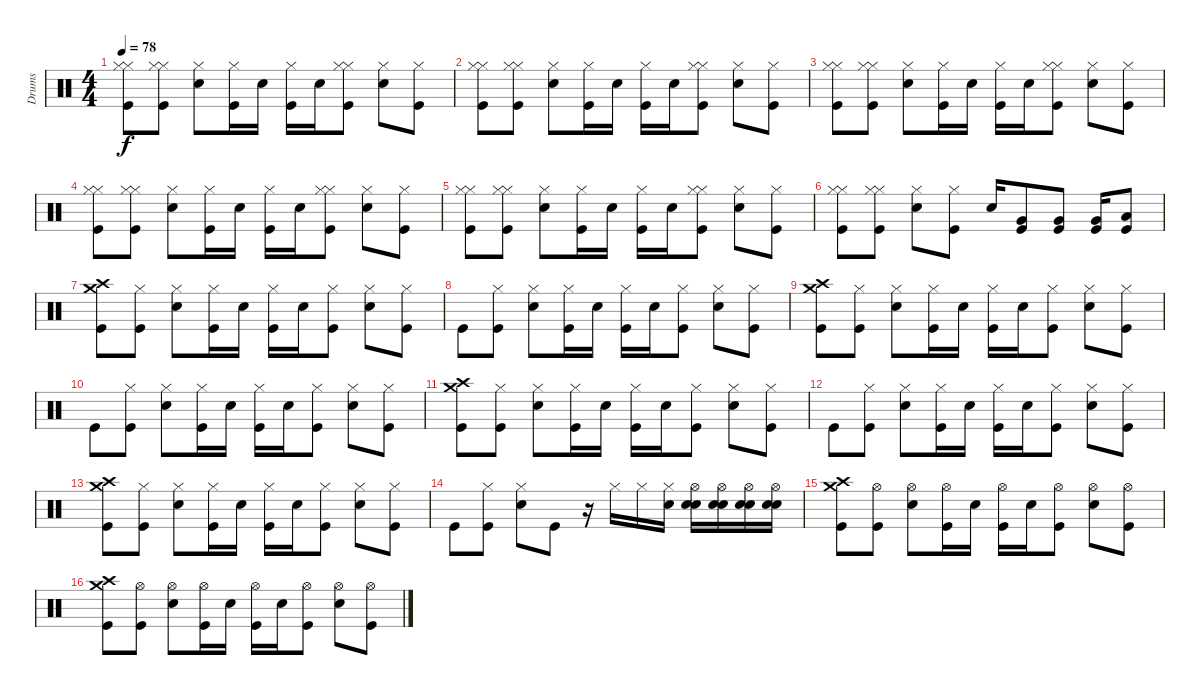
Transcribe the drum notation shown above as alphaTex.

\track ("Drums" "Drums") {instrument percussion}
\staff {score}
\articulation defaults
\ts (4 4)
\tempo 78
\clef neutral
\ks c
("Hi-Hat (closed)" "Hi-Hat (closed)" "Kick (hit)").8{dy f} ("Hi-Hat (closed)" "Hi-Hat (closed)" "Kick (hit)").8 ("Snare (hit) 2" "Hi-Hat (closed)").8 ("Hi-Hat (closed)" "Kick (hit)").16 "Snare (hit) 2".16 ("Hi-Hat (closed)" "Kick (hit)").16 "Snare (hit) 2".16 ("Hi-Hat (closed)" "Hi-Hat (closed)" "Kick (hit)").8 ("Snare (hit) 2" "Hi-Hat (closed)").8 ("Hi-Hat (closed)" "Kick (hit)").8 |
("Hi-Hat (closed)" "Hi-Hat (closed)" "Kick (hit)").8 ("Hi-Hat (closed)" "Hi-Hat (closed)" "Kick (hit)").8 ("Snare (hit) 2" "Hi-Hat (closed)").8 ("Hi-Hat (closed)" "Kick (hit)").16 "Snare (hit) 2".16 ("Hi-Hat (closed)" "Kick (hit)").16 "Snare (hit) 2".16 ("Hi-Hat (closed)" "Hi-Hat (closed)" "Kick (hit)").8 ("Snare (hit) 2" "Hi-Hat (closed)").8 ("Hi-Hat (closed)" "Kick (hit)").8 |
("Hi-Hat (closed)" "Hi-Hat (closed)" "Kick (hit)").8 ("Hi-Hat (closed)" "Hi-Hat (closed)" "Kick (hit)").8 ("Snare (hit) 2" "Hi-Hat (closed)").8 ("Hi-Hat (closed)" "Kick (hit)").16 "Snare (hit) 2".16 ("Hi-Hat (closed)" "Kick (hit)").16 "Snare (hit) 2".16 ("Hi-Hat (closed)" "Hi-Hat (closed)" "Kick (hit)").8 ("Snare (hit) 2" "Hi-Hat (closed)").8 ("Hi-Hat (closed)" "Kick (hit)").8 |
("Hi-Hat (closed)" "Hi-Hat (closed)" "Kick (hit)").8 ("Hi-Hat (closed)" "Hi-Hat (closed)" "Kick (hit)").8 ("Snare (hit) 2" "Hi-Hat (closed)").8 ("Hi-Hat (closed)" "Kick (hit)").16 "Snare (hit) 2".16 ("Hi-Hat (closed)" "Kick (hit)").16 "Snare (hit) 2".16 ("Hi-Hat (closed)" "Hi-Hat (closed)" "Kick (hit)").8 ("Snare (hit) 2" "Hi-Hat (closed)").8 ("Hi-Hat (closed)" "Kick (hit)").8 |
("Hi-Hat (closed)" "Hi-Hat (closed)" "Kick (hit)").8 ("Hi-Hat (closed)" "Hi-Hat (closed)" "Kick (hit)").8 ("Snare (hit) 2" "Hi-Hat (closed)").8 ("Hi-Hat (closed)" "Kick (hit)").16 "Snare (hit) 2".16 ("Hi-Hat (closed)" "Kick (hit)").16 "Snare (hit) 2".16 ("Hi-Hat (closed)" "Hi-Hat (closed)" "Kick (hit)").8 ("Snare (hit) 2" "Hi-Hat (closed)").8 ("Hi-Hat (closed)" "Kick (hit)").8 |
("Hi-Hat (closed)" "Hi-Hat (closed)" "Kick (hit)").8 ("Hi-Hat (closed)" "Hi-Hat (closed)" "Kick (hit)").8 ("Snare (hit) 2" "Hi-Hat (closed)").8 ("Hi-Hat (closed)" "Kick (hit)").8 "Electric Snare (hit)".16 ("Very Low Tom (hit)" "Kick (hit)").8 ("Very Low Tom (hit)" "Kick (hit)").8 ("Very Low Tom (hit)" "Kick (hit)").16 ("Low Floor Tom (hit)" "Kick (hit)").8 |
("Crash high (hit)" "Crash medium (hit)" "Kick (hit)").8 ("Hi-Hat (closed)" "Kick (hit)").8 ("Electric Snare (hit)" "Hi-Hat (closed)").8 ("Hi-Hat (closed)" "Kick (hit)").16 "Electric Snare (hit)".16 ("Hi-Hat (closed)" "Kick (hit)").16 "Electric Snare (hit)".16 ("Hi-Hat (closed)" "Kick (hit)").8 ("Electric Snare (hit)" "Hi-Hat (closed)").8 ("Hi-Hat (closed)" "Kick (hit)").8 |
"Kick (hit)".8 ("Hi-Hat (closed)" "Kick (hit)").8 ("Electric Snare (hit)" "Hi-Hat (closed)").8 ("Hi-Hat (closed)" "Kick (hit)").16 "Electric Snare (hit)".16 ("Hi-Hat (closed)" "Kick (hit)").16 "Electric Snare (hit)".16 ("Hi-Hat (closed)" "Kick (hit)").8 ("Electric Snare (hit)" "Hi-Hat (closed)").8 ("Hi-Hat (closed)" "Kick (hit)").8 |
("Crash high (hit)" "Crash medium (hit)" "Kick (hit)").8 ("Hi-Hat (closed)" "Kick (hit)").8 ("Electric Snare (hit)" "Hi-Hat (closed)").8 ("Hi-Hat (closed)" "Kick (hit)").16 "Electric Snare (hit)".16 ("Hi-Hat (closed)" "Kick (hit)").16 "Electric Snare (hit)".16 ("Hi-Hat (closed)" "Kick (hit)").8 ("Electric Snare (hit)" "Hi-Hat (closed)").8 ("Hi-Hat (closed)" "Kick (hit)").8 |
"Kick (hit)".8 ("Hi-Hat (closed)" "Kick (hit)").8 ("Electric Snare (hit)" "Hi-Hat (closed)").8 ("Hi-Hat (closed)" "Kick (hit)").16 "Electric Snare (hit)".16 ("Hi-Hat (closed)" "Kick (hit)").16 "Electric Snare (hit)".16 ("Hi-Hat (closed)" "Kick (hit)").8 ("Electric Snare (hit)" "Hi-Hat (closed)").8 ("Hi-Hat (closed)" "Kick (hit)").8 |
("Crash high (hit)" "Crash medium (hit)" "Kick (hit)").8 ("Hi-Hat (closed)" "Kick (hit)").8 ("Electric Snare (hit)" "Hi-Hat (closed)").8 ("Hi-Hat (closed)" "Kick (hit)").16 "Electric Snare (hit)".16 ("Hi-Hat (closed)" "Kick (hit)").16 "Electric Snare (hit)".16 ("Hi-Hat (closed)" "Kick (hit)").8 ("Electric Snare (hit)" "Hi-Hat (closed)").8 ("Hi-Hat (closed)" "Kick (hit)").8 |
"Kick (hit)".8 ("Hi-Hat (closed)" "Kick (hit)").8 ("Electric Snare (hit)" "Hi-Hat (closed)").8 ("Hi-Hat (closed)" "Kick (hit)").16 "Electric Snare (hit)".16 ("Hi-Hat (closed)" "Kick (hit)").16 "Electric Snare (hit)".16 ("Hi-Hat (closed)" "Kick (hit)").8 ("Electric Snare (hit)" "Hi-Hat (closed)").8 ("Hi-Hat (closed)" "Kick (hit)").8 |
("Crash high (hit)" "Crash medium (hit)" "Kick (hit)").8 ("Hi-Hat (closed)" "Kick (hit)").8 ("Electric Snare (hit)" "Hi-Hat (closed)").8 ("Hi-Hat (closed)" "Kick (hit)").16 "Electric Snare (hit)".16 ("Hi-Hat (closed)" "Kick (hit)").16 "Electric Snare (hit)".16 ("Hi-Hat (closed)" "Kick (hit)").8 ("Electric Snare (hit)" "Hi-Hat (closed)").8 ("Hi-Hat (closed)" "Kick (hit)").8 |
"Kick (hit)".8 ("Hi-Hat (closed)" "Kick (hit)").8 ("Electric Snare (hit)" "Hi-Hat (closed)").8 "Kick (hit)".8 r.16 "Hi-Hat (closed)".16 "Hi-Hat (closed)".16 ("Snare (hit) 2" "Hi-Hat (closed)").16 ("Electric Snare (hit)" "Snare (hit) 2" "Hi-Hat (open)").16 ("Electric Snare (hit)" "Snare (hit) 2" "Hi-Hat (open)").16 ("Electric Snare (hit)" "Snare (hit) 2" "Hi-Hat (open)").16 ("Electric Snare (hit)" "Snare (hit) 2" "Hi-Hat (open)").16 |
("Crash high (hit)" "Crash medium (hit)" "Kick (hit)").8 ("Hi-Hat (open)" "Kick (hit)").8 ("Electric Snare (hit)" "Hi-Hat (open)").8 ("Hi-Hat (open)" "Kick (hit)").16 "Electric Snare (hit)".16 ("Hi-Hat (open)" "Kick (hit)").16 "Electric Snare (hit)".16 ("Hi-Hat (open)" "Kick (hit)").8 ("Electric Snare (hit)" "Hi-Hat (open)").8 ("Hi-Hat (open)" "Kick (hit)").8 |
("Crash high (hit)" "Crash medium (hit)" "Kick (hit)").8 ("Hi-Hat (open)" "Kick (hit)").8 ("Electric Snare (hit)" "Hi-Hat (open)").8 ("Hi-Hat (open)" "Kick (hit)").16 "Electric Snare (hit)".16 ("Hi-Hat (open)" "Kick (hit)").16 "Electric Snare (hit)".16 ("Hi-Hat (open)" "Kick (hit)").8 ("Electric Snare (hit)" "Hi-Hat (open)").8 ("Hi-Hat (open)" "Kick (hit)").8
